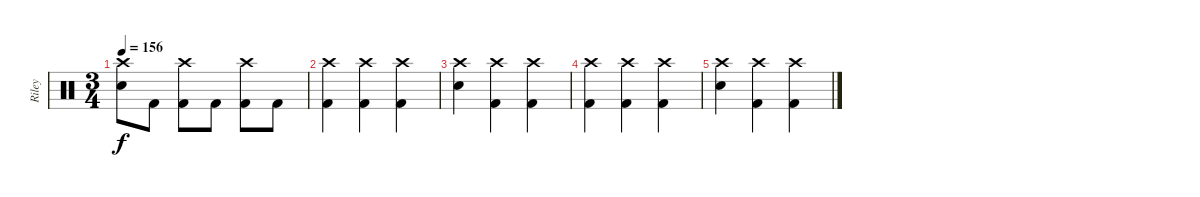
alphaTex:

\track ("Riley" "Riley") {instrument percussion}
\staff {score}
\articulation defaults
\ts (3 4)
\tempo 156
\clef neutral
\ks c
("Crash high (hit)" "Electric Snare (hit)").8{dy f} "Kick (hit) 2".8 ("Crash high (hit)" "Kick (hit) 2").8 "Kick (hit) 2".8 ("Crash high (hit)" "Kick (hit) 2").8 "Kick (hit) 2".8 |
("Crash high (hit)" "Kick (hit) 2").4 ("Crash high (hit)" "Kick (hit) 2").4 ("Crash high (hit)" "Kick (hit) 2").4 |
("Crash high (hit)" "Electric Snare (hit)").4 ("Crash high (hit)" "Kick (hit) 2").4 ("Crash high (hit)" "Kick (hit) 2").4 |
("Crash high (hit)" "Kick (hit) 2").4 ("Crash high (hit)" "Kick (hit) 2").4 ("Crash high (hit)" "Kick (hit) 2").4 |
("Crash high (hit)" "Electric Snare (hit)").4 ("Crash high (hit)" "Kick (hit) 2").4 ("Crash high (hit)" "Kick (hit) 2").4
